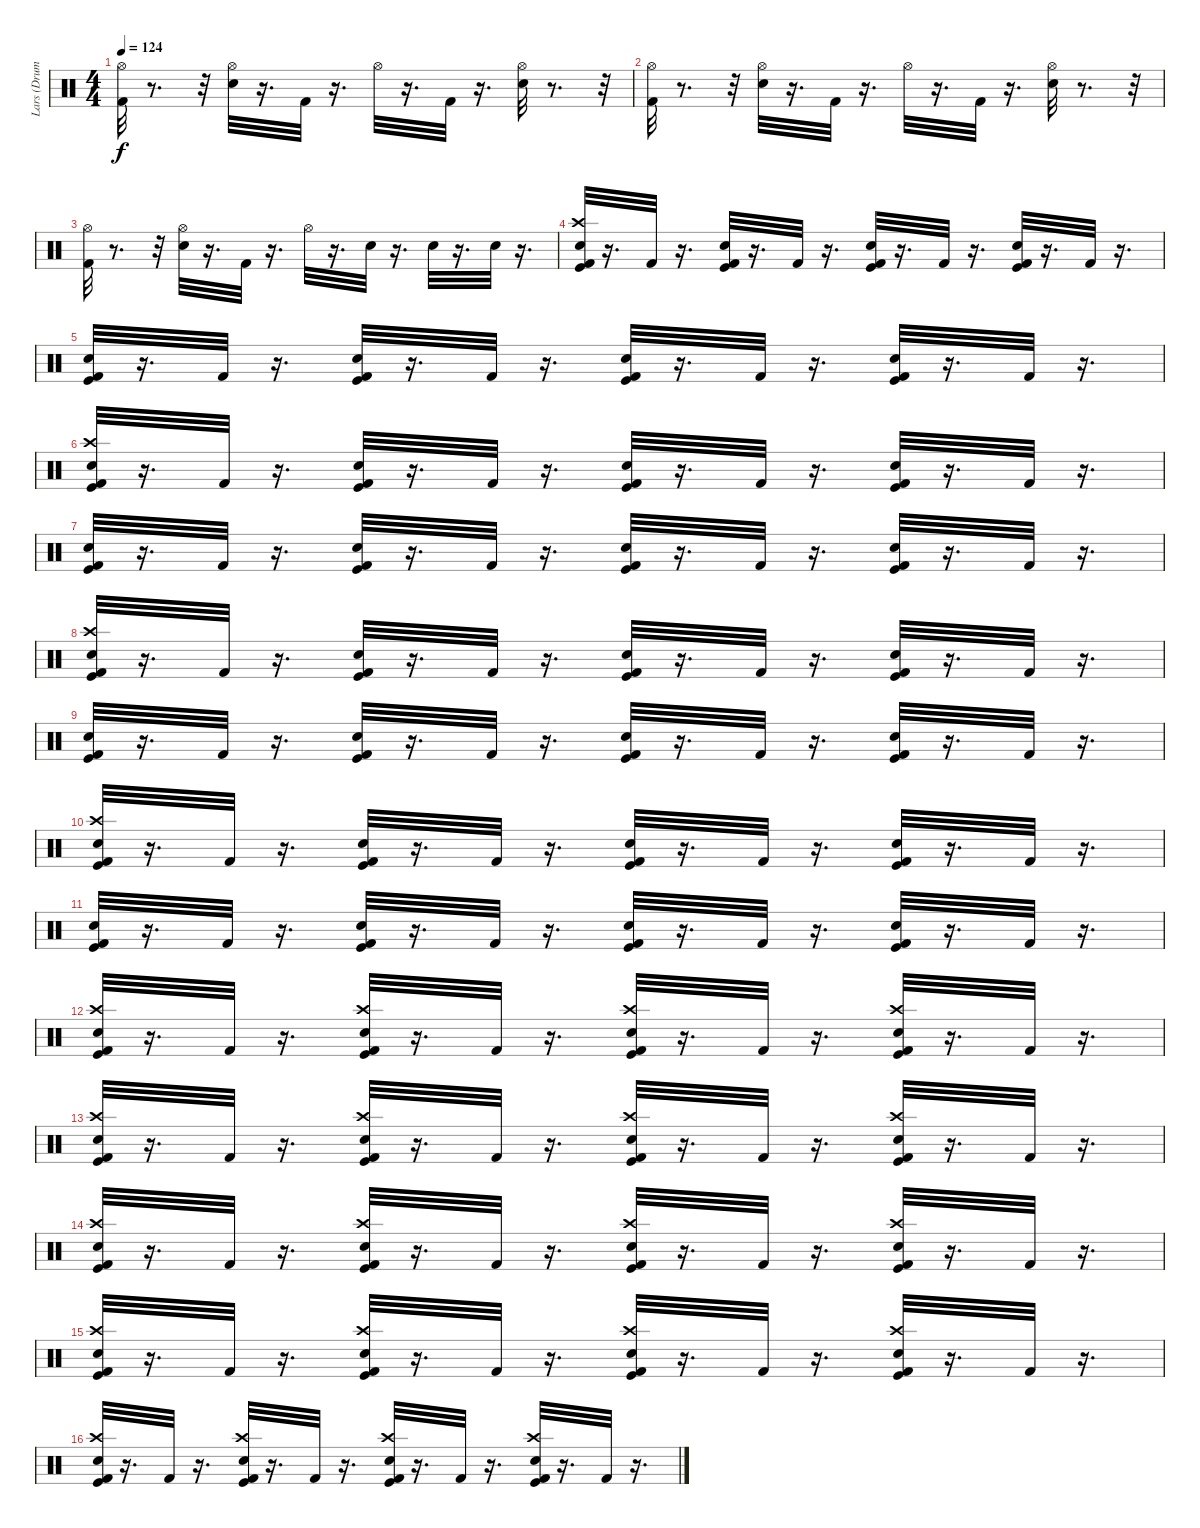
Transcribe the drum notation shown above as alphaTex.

\track ("Lars (Drums)" "Lars (Drum") {instrument percussion}
\staff {score}
\articulation defaults
\ts (4 4)
\tempo 124
\clef neutral
\ks c
("Hi-Hat (open)" "Kick (hit) 2").32{dy f} r.8{d} r.32 ("Electric Snare (hit)" "Hi-Hat (open)").32 r.16{d} "Kick (hit) 2".32 r.16{d} "Hi-Hat (open)".32 r.16{d} "Kick (hit) 2".32 r.16{d} ("Electric Snare (hit)" "Hi-Hat (open)").32 r.8{d} r.32 |
("Hi-Hat (open)" "Kick (hit) 2").32 r.8{d} r.32 ("Electric Snare (hit)" "Hi-Hat (open)").32 r.16{d} "Kick (hit) 2".32 r.16{d} "Hi-Hat (open)".32 r.16{d} "Kick (hit) 2".32 r.16{d} ("Electric Snare (hit)" "Hi-Hat (open)").32 r.8{d} r.32 |
("Hi-Hat (open)" "Kick (hit) 2").32 r.8{d} r.32 ("Electric Snare (hit)" "Hi-Hat (open)").32 r.16{d} "Kick (hit) 2".32 r.16{d} "Hi-Hat (open)".32 r.16{d} "Electric Snare (hit)".32 r.16{d} "Electric Snare (hit)".32 r.16{d} "Electric Snare (hit)".32 r.16{d} |
("Crash high (hit)" "Electric Snare (hit)" "Kick (hit) 2" "Kick (hit)").32 r.16{d} "Kick (hit) 2".32 r.16{d} ("Electric Snare (hit)" "Kick (hit)" "Kick (hit) 2").32 r.16{d} "Kick (hit) 2".32 r.16{d} ("Electric Snare (hit)" "Kick (hit)" "Kick (hit) 2").32 r.16{d} "Kick (hit) 2".32 r.16{d} ("Electric Snare (hit)" "Kick (hit)" "Kick (hit) 2").32 r.16{d} "Kick (hit) 2".32 r.16{d} |
("Electric Snare (hit)" "Kick (hit) 2" "Kick (hit)").32 r.16{d} "Kick (hit) 2".32 r.16{d} ("Electric Snare (hit)" "Kick (hit)" "Kick (hit) 2").32 r.16{d} "Kick (hit) 2".32 r.16{d} ("Electric Snare (hit)" "Kick (hit)" "Kick (hit) 2").32 r.16{d} "Kick (hit) 2".32 r.16{d} ("Electric Snare (hit)" "Kick (hit)" "Kick (hit) 2").32 r.16{d} "Kick (hit) 2".32 r.16{d} |
("Crash high (hit)" "Electric Snare (hit)" "Kick (hit) 2" "Kick (hit)").32 r.16{d} "Kick (hit) 2".32 r.16{d} ("Electric Snare (hit)" "Kick (hit)" "Kick (hit) 2").32 r.16{d} "Kick (hit) 2".32 r.16{d} ("Electric Snare (hit)" "Kick (hit)" "Kick (hit) 2").32 r.16{d} "Kick (hit) 2".32 r.16{d} ("Electric Snare (hit)" "Kick (hit)" "Kick (hit) 2").32 r.16{d} "Kick (hit) 2".32 r.16{d} |
("Electric Snare (hit)" "Kick (hit) 2" "Kick (hit)").32 r.16{d} "Kick (hit) 2".32 r.16{d} ("Electric Snare (hit)" "Kick (hit)" "Kick (hit) 2").32 r.16{d} "Kick (hit) 2".32 r.16{d} ("Electric Snare (hit)" "Kick (hit)" "Kick (hit) 2").32 r.16{d} "Kick (hit) 2".32 r.16{d} ("Electric Snare (hit)" "Kick (hit)" "Kick (hit) 2").32 r.16{d} "Kick (hit) 2".32 r.16{d} |
("Crash high (hit)" "Electric Snare (hit)" "Kick (hit) 2" "Kick (hit)").32 r.16{d} "Kick (hit) 2".32 r.16{d} ("Electric Snare (hit)" "Kick (hit)" "Kick (hit) 2").32 r.16{d} "Kick (hit) 2".32 r.16{d} ("Electric Snare (hit)" "Kick (hit)" "Kick (hit) 2").32 r.16{d} "Kick (hit) 2".32 r.16{d} ("Electric Snare (hit)" "Kick (hit)" "Kick (hit) 2").32 r.16{d} "Kick (hit) 2".32 r.16{d} |
("Electric Snare (hit)" "Kick (hit) 2" "Kick (hit)").32 r.16{d} "Kick (hit) 2".32 r.16{d} ("Electric Snare (hit)" "Kick (hit)" "Kick (hit) 2").32 r.16{d} "Kick (hit) 2".32 r.16{d} ("Electric Snare (hit)" "Kick (hit)" "Kick (hit) 2").32 r.16{d} "Kick (hit) 2".32 r.16{d} ("Electric Snare (hit)" "Kick (hit)" "Kick (hit) 2").32 r.16{d} "Kick (hit) 2".32 r.16{d} |
("Crash high (hit)" "Electric Snare (hit)" "Kick (hit) 2" "Kick (hit)").32 r.16{d} "Kick (hit) 2".32 r.16{d} ("Electric Snare (hit)" "Kick (hit)" "Kick (hit) 2").32 r.16{d} "Kick (hit) 2".32 r.16{d} ("Electric Snare (hit)" "Kick (hit)" "Kick (hit) 2").32 r.16{d} "Kick (hit) 2".32 r.16{d} ("Electric Snare (hit)" "Kick (hit)" "Kick (hit) 2").32 r.16{d} "Kick (hit) 2".32 r.16{d} |
("Electric Snare (hit)" "Kick (hit) 2" "Kick (hit)").32 r.16{d} "Kick (hit) 2".32 r.16{d} ("Electric Snare (hit)" "Kick (hit)" "Kick (hit) 2").32 r.16{d} "Kick (hit) 2".32 r.16{d} ("Electric Snare (hit)" "Kick (hit)" "Kick (hit) 2").32 r.16{d} "Kick (hit) 2".32 r.16{d} ("Electric Snare (hit)" "Kick (hit)" "Kick (hit) 2").32 r.16{d} "Kick (hit) 2".32 r.16{d} |
("Crash high (hit)" "Electric Snare (hit)" "Kick (hit) 2" "Kick (hit)").32 r.16{d} "Kick (hit) 2".32 r.16{d} ("Crash high (hit)" "Electric Snare (hit)" "Kick (hit)" "Kick (hit) 2").32 r.16{d} "Kick (hit) 2".32 r.16{d} ("Crash high (hit)" "Electric Snare (hit)" "Kick (hit)" "Kick (hit) 2").32 r.16{d} "Kick (hit) 2".32 r.16{d} ("Crash high (hit)" "Electric Snare (hit)" "Kick (hit)" "Kick (hit) 2").32 r.16{d} "Kick (hit) 2".32 r.16{d} |
("Crash high (hit)" "Electric Snare (hit)" "Kick (hit) 2" "Kick (hit)").32 r.16{d} "Kick (hit) 2".32 r.16{d} ("Crash high (hit)" "Electric Snare (hit)" "Kick (hit)" "Kick (hit) 2").32 r.16{d} "Kick (hit) 2".32 r.16{d} ("Crash high (hit)" "Electric Snare (hit)" "Kick (hit)" "Kick (hit) 2").32 r.16{d} "Kick (hit) 2".32 r.16{d} ("Crash high (hit)" "Electric Snare (hit)" "Kick (hit)" "Kick (hit) 2").32 r.16{d} "Kick (hit) 2".32 r.16{d} |
("Crash high (hit)" "Electric Snare (hit)" "Kick (hit) 2" "Kick (hit)").32 r.16{d} "Kick (hit) 2".32 r.16{d} ("Crash high (hit)" "Electric Snare (hit)" "Kick (hit)" "Kick (hit) 2").32 r.16{d} "Kick (hit) 2".32 r.16{d} ("Crash high (hit)" "Electric Snare (hit)" "Kick (hit)" "Kick (hit) 2").32 r.16{d} "Kick (hit) 2".32 r.16{d} ("Crash high (hit)" "Electric Snare (hit)" "Kick (hit)" "Kick (hit) 2").32 r.16{d} "Kick (hit) 2".32 r.16{d} |
("Crash high (hit)" "Electric Snare (hit)" "Kick (hit) 2" "Kick (hit)").32 r.16{d} "Kick (hit) 2".32 r.16{d} ("Crash high (hit)" "Electric Snare (hit)" "Kick (hit)" "Kick (hit) 2").32 r.16{d} "Kick (hit) 2".32 r.16{d} ("Crash high (hit)" "Electric Snare (hit)" "Kick (hit)" "Kick (hit) 2").32 r.16{d} "Kick (hit) 2".32 r.16{d} ("Crash high (hit)" "Electric Snare (hit)" "Kick (hit)" "Kick (hit) 2").32 r.16{d} "Kick (hit) 2".32 r.16{d} |
("Crash high (hit)" "Electric Snare (hit)" "Kick (hit) 2" "Kick (hit)").32 r.16{d} "Kick (hit) 2".32 r.16{d} ("Crash high (hit)" "Electric Snare (hit)" "Kick (hit)" "Kick (hit) 2").32 r.16{d} "Kick (hit) 2".32 r.16{d} ("Crash high (hit)" "Electric Snare (hit)" "Kick (hit)" "Kick (hit) 2").32 r.16{d} "Kick (hit) 2".32 r.16{d} ("Crash high (hit)" "Electric Snare (hit)" "Kick (hit)" "Kick (hit) 2").32 r.16{d} "Kick (hit) 2".32 r.16{d}
